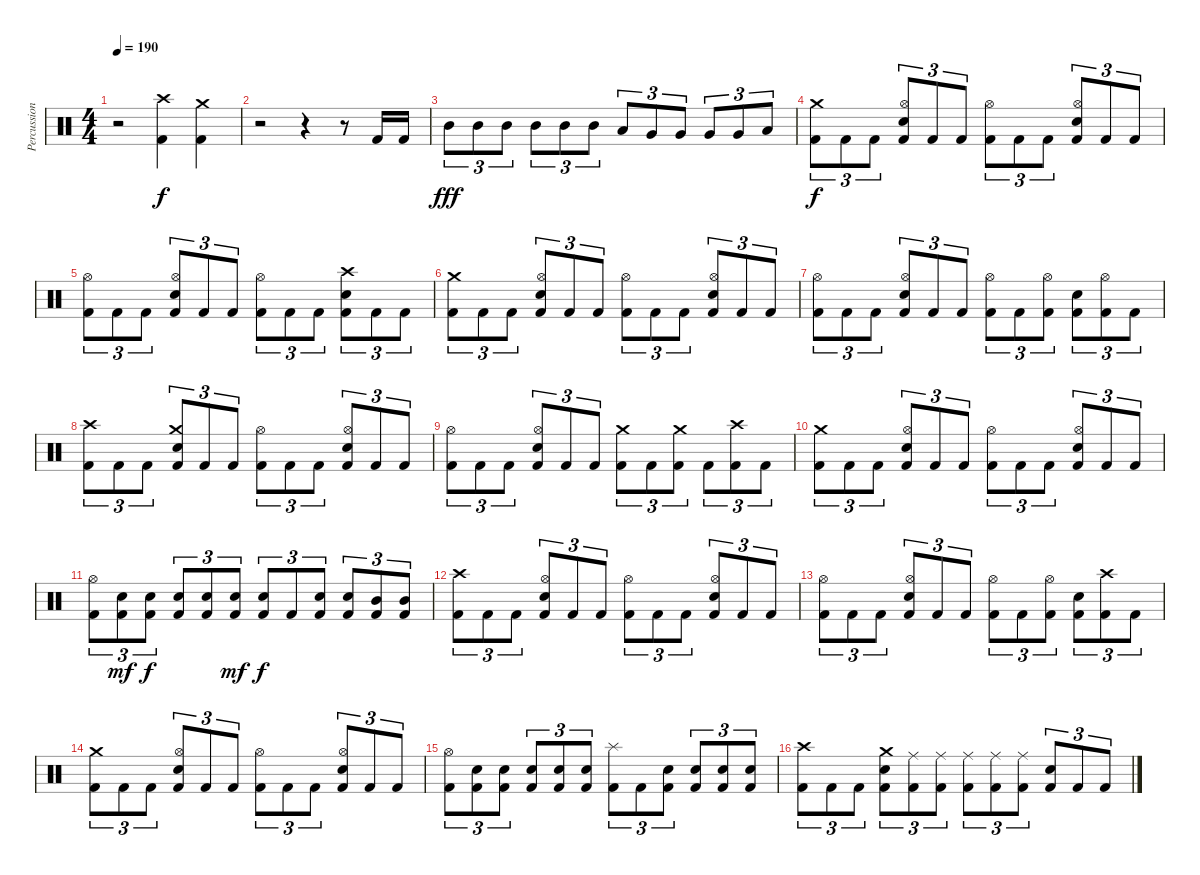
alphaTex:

\track ("Percussion" "Percussion") {instrument percussion}
\staff {score}
\articulation defaults
\ts (4 4)
\tempo 190
\clef neutral
\ks c
r.2{dy f} ("Crash high (hit)" "Kick (hit) 2").4{volume 13} ("Crash medium (hit)" "Kick (hit) 2").4 |
r.2{volume 0} r.4 r.8 "Kick (hit) 2".16{volume 13} "Kick (hit) 2".16 |
"Mid Tom (hit)".8{tu (3 2) dy fff} "Mid Tom (hit)".8{tu (3 2)} "Mid Tom (hit)".8{tu (3 2)} "Mid Tom (hit)".8{tu (3 2)} "Mid Tom (hit)".8{tu (3 2)} "Mid Tom (hit)".8{tu (3 2)} "Low Tom (hit)".8{tu (3 2)} "Very Low Tom (hit)".8{tu (3 2)} "Very Low Tom (hit)".8{tu (3 2)} "Very Low Tom (hit)".8{tu (3 2)} "Very Low Tom (hit)".8{tu (3 2)} "Low Floor Tom (hit)".8{tu (3 2)} |
("Crash medium (hit)" "Kick (hit) 2").8{tu (3 2) dy f} "Kick (hit) 2".8{tu (3 2)} "Kick (hit) 2".8{tu (3 2)} ("Hi-Hat (open)" "Electric Snare (hit)" "Kick (hit) 2").8{tu (3 2)} "Kick (hit) 2".8{tu (3 2)} "Kick (hit) 2".8{tu (3 2)} ("Hi-Hat (open)" "Kick (hit) 2").8{tu (3 2)} "Kick (hit) 2".8{tu (3 2)} "Kick (hit) 2".8{tu (3 2)} ("Hi-Hat (open)" "Electric Snare (hit)" "Kick (hit) 2").8{tu (3 2)} "Kick (hit) 2".8{tu (3 2)} "Kick (hit) 2".8{tu (3 2)} |
("Hi-Hat (open)" "Kick (hit) 2").8{tu (3 2)} "Kick (hit) 2".8{tu (3 2)} "Kick (hit) 2".8{tu (3 2)} ("Hi-Hat (open)" "Electric Snare (hit)" "Kick (hit) 2").8{tu (3 2)} "Kick (hit) 2".8{tu (3 2)} "Kick (hit) 2".8{tu (3 2)} ("Hi-Hat (open)" "Kick (hit) 2").8{tu (3 2)} "Kick (hit) 2".8{tu (3 2)} "Kick (hit) 2".8{tu (3 2)} ("Crash high (hit)" "Electric Snare (hit)" "Kick (hit) 2").8{tu (3 2)} "Kick (hit) 2".8{tu (3 2)} "Kick (hit) 2".8{tu (3 2)} |
("Crash medium (hit)" "Kick (hit) 2").8{tu (3 2)} "Kick (hit) 2".8{tu (3 2)} "Kick (hit) 2".8{tu (3 2)} ("Hi-Hat (open)" "Electric Snare (hit)" "Kick (hit) 2").8{tu (3 2)} "Kick (hit) 2".8{tu (3 2)} "Kick (hit) 2".8{tu (3 2)} ("Hi-Hat (open)" "Kick (hit) 2").8{tu (3 2)} "Kick (hit) 2".8{tu (3 2)} "Kick (hit) 2".8{tu (3 2)} ("Hi-Hat (open)" "Electric Snare (hit)" "Kick (hit) 2").8{tu (3 2)} "Kick (hit) 2".8{tu (3 2)} "Kick (hit) 2".8{tu (3 2)} |
("Hi-Hat (open)" "Kick (hit) 2").8{tu (3 2)} "Kick (hit) 2".8{tu (3 2)} "Kick (hit) 2".8{tu (3 2)} ("Hi-Hat (open)" "Electric Snare (hit)" "Kick (hit) 2").8{tu (3 2)} "Kick (hit) 2".8{tu (3 2)} "Kick (hit) 2".8{tu (3 2)} ("Hi-Hat (open)" "Kick (hit) 2").8{tu (3 2)} "Kick (hit) 2".8{tu (3 2)} ("Hi-Hat (open)" "Kick (hit) 2").8{tu (3 2)} ("Electric Snare (hit)" "Kick (hit) 2").8{tu (3 2)} ("Hi-Hat (open)" "Kick (hit) 2").8{tu (3 2)} "Kick (hit) 2".8{tu (3 2)} |
("Crash high (hit)" "Kick (hit) 2").8{tu (3 2)} "Kick (hit) 2".8{tu (3 2)} "Kick (hit) 2".8{tu (3 2)} ("Crash medium (hit)" "Electric Snare (hit)" "Kick (hit) 2").8{tu (3 2)} "Kick (hit) 2".8{tu (3 2)} "Kick (hit) 2".8{tu (3 2)} ("Hi-Hat (open)" "Kick (hit) 2").8{tu (3 2)} "Kick (hit) 2".8{tu (3 2)} "Kick (hit) 2".8{tu (3 2)} ("Hi-Hat (open)" "Electric Snare (hit)" "Kick (hit) 2").8{tu (3 2)} "Kick (hit) 2".8{tu (3 2)} "Kick (hit) 2".8{tu (3 2)} |
("Hi-Hat (open)" "Kick (hit) 2").8{tu (3 2)} "Kick (hit) 2".8{tu (3 2)} "Kick (hit) 2".8{tu (3 2)} ("Hi-Hat (open)" "Electric Snare (hit)" "Kick (hit) 2").8{tu (3 2)} "Kick (hit) 2".8{tu (3 2)} "Kick (hit) 2".8{tu (3 2)} ("Crash medium (hit)" "Kick (hit) 2").8{tu (3 2)} "Kick (hit) 2".8{tu (3 2)} ("Crash medium (hit)" "Kick (hit) 2").8{tu (3 2)} "Kick (hit) 2".8{tu (3 2)} ("Crash high (hit)" "Kick (hit) 2").8{tu (3 2)} "Kick (hit) 2".8{tu (3 2)} |
("Crash medium (hit)" "Kick (hit) 2").8{tu (3 2)} "Kick (hit) 2".8{tu (3 2)} "Kick (hit) 2".8{tu (3 2)} ("Hi-Hat (open)" "Electric Snare (hit)" "Kick (hit) 2").8{tu (3 2)} "Kick (hit) 2".8{tu (3 2)} "Kick (hit) 2".8{tu (3 2)} ("Hi-Hat (open)" "Kick (hit) 2").8{tu (3 2)} "Kick (hit) 2".8{tu (3 2)} "Kick (hit) 2".8{tu (3 2)} ("Hi-Hat (open)" "Electric Snare (hit)" "Kick (hit) 2").8{tu (3 2)} "Kick (hit) 2".8{tu (3 2)} "Kick (hit) 2".8{tu (3 2)} |
("Hi-Hat (open)" "Kick (hit) 2").8{tu (3 2)} ("Electric Snare (hit)" "Kick (hit) 2").8{tu (3 2) dy mf} ("Electric Snare (hit)" "Kick (hit) 2").8{tu (3 2) dy f} ("Electric Snare (hit)" "Kick (hit) 2").8{tu (3 2)} ("Electric Snare (hit)" "Kick (hit) 2").8{tu (3 2)} ("Electric Snare (hit)" "Kick (hit) 2").8{tu (3 2) dy mf} ("Electric Snare (hit)" "Kick (hit) 2").8{tu (3 2) dy f} "Kick (hit) 2".8{tu (3 2)} ("Electric Snare (hit)" "Kick (hit) 2").8{tu (3 2)} ("Electric Snare (hit)" "Kick (hit) 2").8{tu (3 2)} ("Mid Tom (hit)" "Kick (hit) 2").8{tu (3 2)} ("Mid Tom (hit)" "Kick (hit) 2").8{tu (3 2)} |
("Crash high (hit)" "Kick (hit) 2").8{tu (3 2)} "Kick (hit) 2".8{tu (3 2)} "Kick (hit) 2".8{tu (3 2)} ("Hi-Hat (open)" "Electric Snare (hit)" "Kick (hit) 2").8{tu (3 2)} "Kick (hit) 2".8{tu (3 2)} "Kick (hit) 2".8{tu (3 2)} ("Hi-Hat (open)" "Kick (hit) 2").8{tu (3 2)} "Kick (hit) 2".8{tu (3 2)} "Kick (hit) 2".8{tu (3 2)} ("Hi-Hat (open)" "Electric Snare (hit)" "Kick (hit) 2").8{tu (3 2)} "Kick (hit) 2".8{tu (3 2)} "Kick (hit) 2".8{tu (3 2)} |
("Hi-Hat (open)" "Kick (hit) 2").8{tu (3 2)} "Kick (hit) 2".8{tu (3 2)} "Kick (hit) 2".8{tu (3 2)} ("Hi-Hat (open)" "Electric Snare (hit)" "Kick (hit) 2").8{tu (3 2)} "Kick (hit) 2".8{tu (3 2)} "Kick (hit) 2".8{tu (3 2)} ("Hi-Hat (open)" "Kick (hit) 2").8{tu (3 2)} "Kick (hit) 2".8{tu (3 2)} ("Hi-Hat (open)" "Kick (hit) 2").8{tu (3 2)} ("Electric Snare (hit)" "Kick (hit) 2").8{tu (3 2)} ("Crash high (hit)" "Kick (hit) 2").8{tu (3 2)} "Kick (hit) 2".8{tu (3 2)} |
("Crash medium (hit)" "Kick (hit) 2").8{tu (3 2)} "Kick (hit) 2".8{tu (3 2)} "Kick (hit) 2".8{tu (3 2)} ("Hi-Hat (open)" "Electric Snare (hit)" "Kick (hit) 2").8{tu (3 2)} "Kick (hit) 2".8{tu (3 2)} "Kick (hit) 2".8{tu (3 2)} ("Hi-Hat (open)" "Kick (hit) 2").8{tu (3 2)} "Kick (hit) 2".8{tu (3 2)} "Kick (hit) 2".8{tu (3 2)} ("Hi-Hat (open)" "Electric Snare (hit)" "Kick (hit) 2").8{tu (3 2)} "Kick (hit) 2".8{tu (3 2)} "Kick (hit) 2".8{tu (3 2)} |
("Hi-Hat (open)" "Kick (hit) 2").8{tu (3 2)} ("Electric Snare (hit)" "Kick (hit) 2").8{tu (3 2)} ("Electric Snare (hit)" "Kick (hit) 2").8{tu (3 2)} ("Electric Snare (hit)" "Kick (hit) 2").8{tu (3 2)} ("Electric Snare (hit)" "Kick (hit) 2").8{tu (3 2)} ("Electric Snare (hit)" "Kick (hit) 2").8{tu (3 2)} ("Splash (hit)" "Kick (hit) 2").8{tu (3 2)} "Kick (hit) 2".8{tu (3 2)} ("Electric Snare (hit)" "Kick (hit) 2").8{tu (3 2)} ("Electric Snare (hit)" "Kick (hit) 2").8{tu (3 2)} ("Electric Snare (hit)" "Kick (hit) 2").8{tu (3 2)} ("Electric Snare (hit)" "Kick (hit) 2").8{tu (3 2)} |
("Crash high (hit)" "Kick (hit) 2").8{tu (3 2)} "Kick (hit) 2".8{tu (3 2)} "Kick (hit) 2".8{tu (3 2)} ("Crash medium (hit)" "Electric Snare (hit)" "Kick (hit) 2").8{tu (3 2)} ("Ride (middle)" "Kick (hit) 2").8{tu (3 2)} ("Ride (middle)" "Kick (hit) 2").8{tu (3 2)} ("Ride (middle)" "Kick (hit) 2").8{tu (3 2)} ("Ride (middle)" "Kick (hit) 2").8{tu (3 2)} ("Ride (middle)" "Kick (hit) 2").8{tu (3 2)} ("Electric Snare (hit)" "Kick (hit) 2").8{tu (3 2)} "Kick (hit) 2".8{tu (3 2)} "Kick (hit) 2".8{tu (3 2)}
